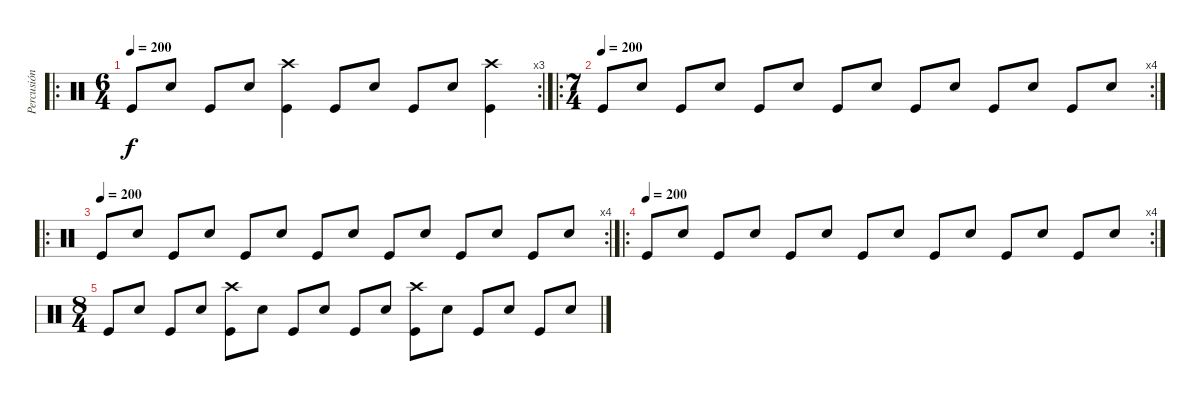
\track ("Percusión" "Percusión") {instrument percussion}
\staff {score}
\articulation defaults
\ro
\rc 3
\ts (6 4)
\tempo 200
\clef neutral
\ks c "Kick (hit)".8{dy f} "Snare (hit) 2".8 "Kick (hit)".8 "Snare (hit) 2".8
("Kick (hit)" "Crash high (hit)").4 "Kick (hit)".8 "Snare (hit) 2".8 "Kick (hit)".8 "Snare (hit) 2".8 ("Crash high (hit)" "Kick (hit)").4 |
\ro
\rc 4
\ts (7 4)
\tempo (200)
"Kick (hit)".8 "Snare (hit) 2".8 "Kick (hit)".8 "Snare (hit) 2".8 "Kick (hit)".8 "Snare (hit) 2".8 "Kick (hit)".8 "Snare (hit) 2".8 "Kick (hit)".8 "Snare (hit) 2".8 "Kick (hit)".8 "Snare (hit) 2".8 "Kick (hit)".8 "Snare (hit) 2".8 |
\ro
\rc 4
\tempo (200)
"Kick (hit)".8 "Snare (hit) 2".8 "Kick (hit)".8 "Snare (hit) 2".8 "Kick (hit)".8 "Snare (hit) 2".8 "Kick (hit)".8 "Snare (hit) 2".8 "Kick (hit)".8 "Snare (hit) 2".8 "Kick (hit)".8 "Snare (hit) 2".8 "Kick (hit)".8 "Snare (hit) 2".8 |
\ro
\rc 4
\tempo (200)
"Kick (hit)".8 "Snare (hit) 2".8 "Kick (hit)".8 "Snare (hit) 2".8 "Kick (hit)".8 "Snare (hit) 2".8 "Kick (hit)".8 "Snare (hit) 2".8 "Kick (hit)".8 "Snare (hit) 2".8 "Kick (hit)".8 "Snare (hit) 2".8 "Kick (hit)".8 "Snare (hit) 2".8 |
\ts (8 4)
"Kick (hit)".8 "Snare (hit) 2".8 "Kick (hit)".8 "Snare (hit) 2".8 ("Crash high (hit)" "Kick (hit)").8 "Snare (hit) 2".8 "Kick (hit)".8 "Snare (hit) 2".8 "Kick (hit)".8 "Snare (hit) 2".8 ("Crash high (hit)" "Kick (hit)").8 "Snare (hit) 2".8 "Kick (hit)".8 "Snare (hit) 2".8 "Kick (hit)".8 "Snare (hit) 2".8
